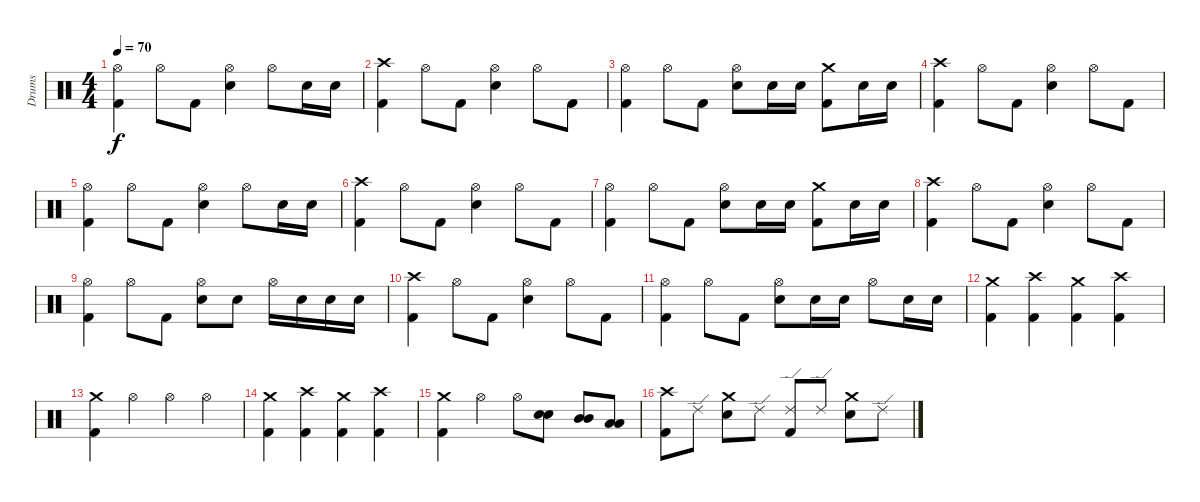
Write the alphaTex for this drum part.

\track ("Drums" "Drums") {instrument percussion}
\staff {score}
\articulation defaults
\ts (4 4)
\tempo 70
\clef neutral
\ks c
("Hi-Hat (open)" "Kick (hit) 2").4{dy f} "Hi-Hat (open)".8 "Kick (hit) 2".8 ("Hi-Hat (open)" "Electric Snare (hit)").4 "Hi-Hat (open)".8 "Electric Snare (hit)".16 "Electric Snare (hit)".16 |
("Crash high (hit)" "Kick (hit) 2").4 "Hi-Hat (open)".8 "Kick (hit) 2".8 ("Hi-Hat (open)" "Electric Snare (hit)").4 "Hi-Hat (open)".8 "Kick (hit) 2".8 |
("Hi-Hat (open)" "Kick (hit) 2").4 "Hi-Hat (open)".8 "Kick (hit) 2".8 ("Hi-Hat (open)" "Electric Snare (hit)").8 "Electric Snare (hit)".16 "Electric Snare (hit)".16 ("Crash medium (hit)" "Kick (hit) 2").8 "Electric Snare (hit)".16 "Electric Snare (hit)".16 |
("Crash high (hit)" "Kick (hit) 2").4 "Hi-Hat (open)".8 "Kick (hit) 2".8 ("Hi-Hat (open)" "Electric Snare (hit)").4 "Hi-Hat (open)".8 "Kick (hit) 2".8 |
("Hi-Hat (open)" "Kick (hit) 2").4 "Hi-Hat (open)".8 "Kick (hit) 2".8 ("Hi-Hat (open)" "Electric Snare (hit)").4 "Hi-Hat (open)".8 "Electric Snare (hit)".16 "Electric Snare (hit)".16 |
("Crash high (hit)" "Kick (hit) 2").4 "Hi-Hat (open)".8 "Kick (hit) 2".8 ("Hi-Hat (open)" "Electric Snare (hit)").4 "Hi-Hat (open)".8 "Kick (hit) 2".8 |
("Hi-Hat (open)" "Kick (hit) 2").4 "Hi-Hat (open)".8 "Kick (hit) 2".8 ("Hi-Hat (open)" "Electric Snare (hit)").8 "Electric Snare (hit)".16 "Electric Snare (hit)".16 ("Crash medium (hit)" "Kick (hit) 2").8 "Electric Snare (hit)".16 "Electric Snare (hit)".16 |
("Crash high (hit)" "Kick (hit) 2").4 "Hi-Hat (open)".8 "Kick (hit) 2".8 ("Hi-Hat (open)" "Electric Snare (hit)").4 "Hi-Hat (open)".8 "Kick (hit) 2".8 |
("Hi-Hat (open)" "Kick (hit) 2").4 "Hi-Hat (open)".8 "Kick (hit) 2".8 ("Hi-Hat (open)" "Electric Snare (hit)").8 "Electric Snare (hit)".8 "Hi-Hat (open)".16 "Electric Snare (hit)".16 "Electric Snare (hit)".16 "Electric Snare (hit)".16 |
("Crash high (hit)" "Kick (hit) 2").4 "Hi-Hat (open)".8 "Kick (hit) 2".8 ("Hi-Hat (open)" "Electric Snare (hit)").4 "Hi-Hat (open)".8 "Kick (hit) 2".8 |
("Hi-Hat (open)" "Kick (hit) 2").4 "Hi-Hat (open)".8 "Kick (hit) 2".8 ("Hi-Hat (open)" "Electric Snare (hit)").8 "Electric Snare (hit)".16 "Electric Snare (hit)".16 "Hi-Hat (open)".8 "Electric Snare (hit)".16 "Electric Snare (hit)".16 |
("Crash medium (hit)" "Kick (hit) 2").4 ("Crash high (hit)" "Kick (hit) 2").4 ("Crash medium (hit)" "Kick (hit) 2").4 ("Crash high (hit)" "Kick (hit) 2").4 |
("Crash medium (hit)" "Kick (hit) 2").4 "Hi-Hat (open)".4 "Hi-Hat (open)".4 "Hi-Hat (open)".4 |
("Crash medium (hit)" "Kick (hit) 2").4 ("Crash high (hit)" "Kick (hit) 2").4 ("Crash medium (hit)" "Kick (hit) 2").4 ("Crash high (hit)" "Kick (hit) 2").4 |
("Crash medium (hit)" "Kick (hit) 2").4 "Hi-Hat (open)".4 "Hi-Hat (open)".8 ("Electric Snare (hit)" "Electric Snare (hit)").8{bu 60} ("Mid Tom (hit)" "Mid Tom (hit)").8{bu 60} ("Low Tom (hit)" "Low Tom (hit)").8{bu 60} |
("Crash high (hit)" "Kick (hit) 2").8 "Ride (edge) 2".8 ("Crash medium (hit)" "Electric Snare (hit)").8 "Ride (edge) 2".8 ("Ride (edge) 2" "Kick (hit) 2").8 "Ride (edge) 2".8 ("Crash medium (hit)" "Electric Snare (hit)").8 "Ride (edge) 2".8
